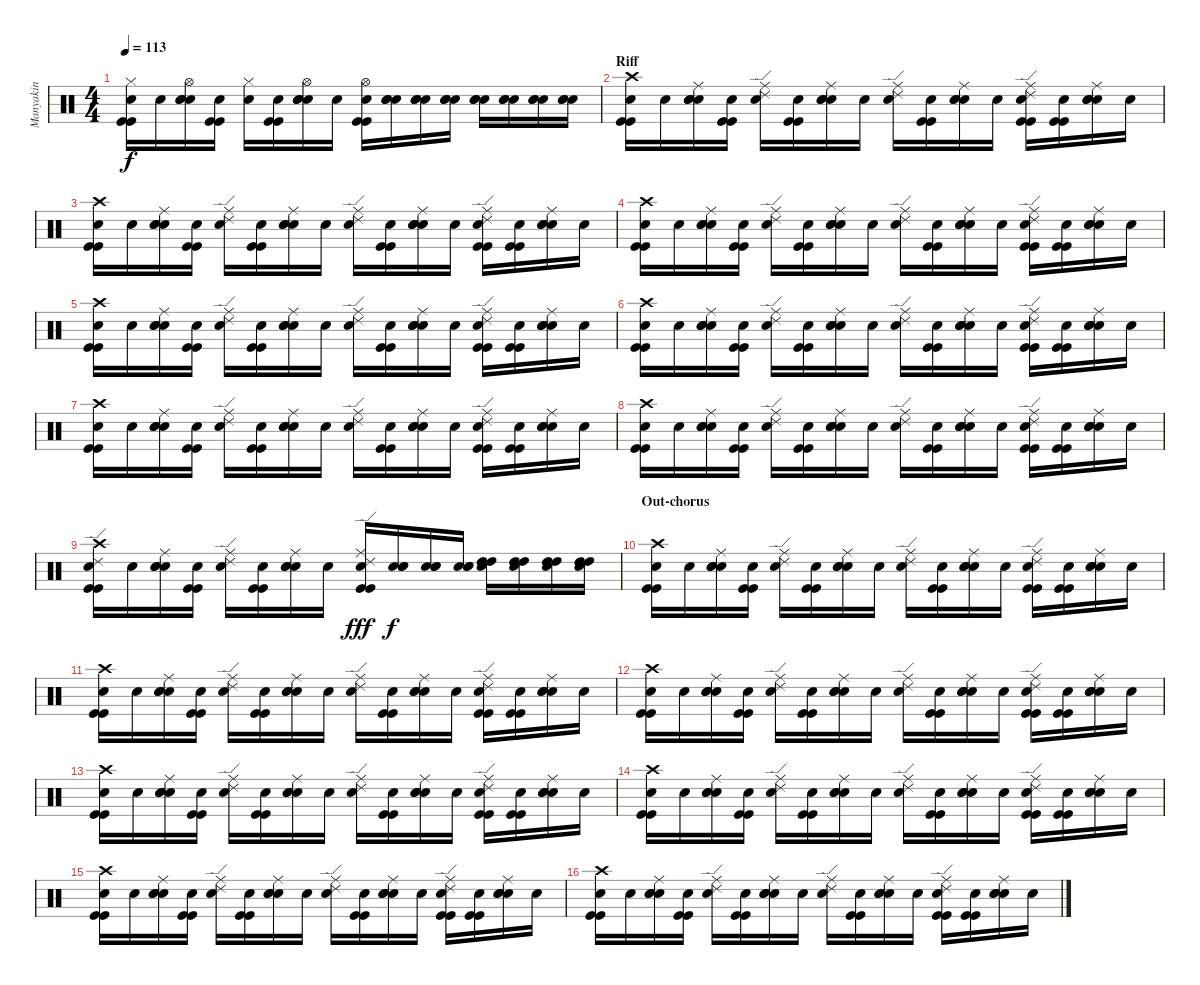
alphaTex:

\track ("Manyakin" "Manyakin") {instrument percussion}
\staff {score}
\articulation defaults
\ts (4 4)
\tempo 113
\clef neutral
\ks c
("Hi-Hat (closed)" "Kick (hit)" "Kick (hit)" "Snare (hit)"{x}).16{dy f} "Snare (hit)"{x}.16 ("Hi-Hat (open)" "Electric Snare (hit)" "Electric Snare (hit)" "Snare (hit)"{x}).16 ("Kick (hit)" "Kick (hit)" "Snare (hit)"{x}).16 ("Hi-Hat (closed)" "Snare (hit)"{x}).16 ("Kick (hit)" "Kick (hit)" "Snare (hit)"{x}).16 ("Hi-Hat (open)" "Electric Snare (hit)" "Electric Snare (hit)" "Snare (hit)"{x}).16 "Snare (hit)"{x}.16 ("Hi-Hat (open)" "Kick (hit)" "Kick (hit)" "Snare (hit)"{x}).16 ("Electric Snare (hit)" "Electric Snare (hit)" "Snare (hit)"{x}).16 ("Electric Snare (hit)" "Electric Snare (hit)" "Snare (hit)"{x}).16 ("Electric Snare (hit)" "Electric Snare (hit)" "Snare (hit)"{x}).16 ("Electric Snare (hit)" "Electric Snare (hit)" "Snare (hit)"{x}).16 ("Electric Snare (hit)" "Electric Snare (hit)" "Snare (hit)"{x}).16 ("Electric Snare (hit)" "Electric Snare (hit)" "Snare (hit)"{x}).16 ("Electric Snare (hit)" "Electric Snare (hit)" "Snare (hit)"{x}).16 |
\section ("" "Riff")
("Crash high (hit)" "Kick (hit)" "Kick (hit)" "Snare (hit)"{x}).16 "Snare (hit)"{x}.16 ("Ride (middle)" "Electric Snare (hit)" "Electric Snare (hit)" "Snare (hit)"{x}).16 ("Kick (hit)" "Kick (hit)" "Snare (hit)"{x}).16 ("Ride (middle)" "Ride (edge) 2" "Snare (hit)"{x}).16 ("Kick (hit)" "Kick (hit)" "Snare (hit)"{x}).16 ("Ride (middle)" "Electric Snare (hit)" "Electric Snare (hit)" "Snare (hit)"{x}).16 "Snare (hit)"{x}.16 ("Ride (middle)" "Ride (edge) 2" "Snare (hit)"{x}).16 ("Kick (hit)" "Kick (hit)" "Snare (hit)"{x}).16 ("Ride (middle)" "Electric Snare (hit)" "Electric Snare (hit)" "Snare (hit)"{x}).16 "Snare (hit)"{x}.16 ("Ride (middle)" "Ride (edge) 2" "Kick (hit)" "Kick (hit)" "Snare (hit)"{x}).16 ("Kick (hit)" "Kick (hit)" "Snare (hit)"{x}).16 ("Ride (middle)" "Electric Snare (hit)" "Electric Snare (hit)" "Snare (hit)"{x}).16 "Snare (hit)"{x}.16 |
("Crash high (hit)" "Kick (hit)" "Kick (hit)" "Snare (hit)"{x}).16 "Snare (hit)"{x}.16 ("Ride (middle)" "Electric Snare (hit)" "Electric Snare (hit)" "Snare (hit)"{x}).16 ("Kick (hit)" "Kick (hit)" "Snare (hit)"{x}).16 ("Ride (middle)" "Ride (edge) 2" "Snare (hit)"{x}).16 ("Kick (hit)" "Kick (hit)" "Snare (hit)"{x}).16 ("Ride (middle)" "Electric Snare (hit)" "Electric Snare (hit)" "Snare (hit)"{x}).16 "Snare (hit)"{x}.16 ("Ride (middle)" "Ride (edge) 2" "Snare (hit)"{x}).16 ("Kick (hit)" "Kick (hit)" "Snare (hit)"{x}).16 ("Ride (middle)" "Electric Snare (hit)" "Electric Snare (hit)" "Snare (hit)"{x}).16 "Snare (hit)"{x}.16 ("Ride (middle)" "Ride (edge) 2" "Kick (hit)" "Kick (hit)" "Snare (hit)"{x}).16 ("Kick (hit)" "Kick (hit)" "Snare (hit)"{x}).16 ("Ride (middle)" "Electric Snare (hit)" "Electric Snare (hit)" "Snare (hit)"{x}).16 "Snare (hit)"{x}.16 |
("Crash high (hit)" "Kick (hit)" "Kick (hit)" "Snare (hit)"{x}).16 "Snare (hit)"{x}.16 ("Ride (middle)" "Electric Snare (hit)" "Electric Snare (hit)" "Snare (hit)"{x}).16 ("Kick (hit)" "Kick (hit)" "Snare (hit)"{x}).16 ("Ride (middle)" "Ride (edge) 2" "Snare (hit)"{x}).16 ("Kick (hit)" "Kick (hit)" "Snare (hit)"{x}).16 ("Ride (middle)" "Electric Snare (hit)" "Electric Snare (hit)" "Snare (hit)"{x}).16 "Snare (hit)"{x}.16 ("Ride (middle)" "Ride (edge) 2" "Snare (hit)"{x}).16 ("Kick (hit)" "Kick (hit)" "Snare (hit)"{x}).16 ("Ride (middle)" "Electric Snare (hit)" "Electric Snare (hit)" "Snare (hit)"{x}).16 "Snare (hit)"{x}.16 ("Ride (middle)" "Ride (edge) 2" "Kick (hit)" "Kick (hit)" "Snare (hit)"{x}).16 ("Kick (hit)" "Kick (hit)" "Snare (hit)"{x}).16 ("Ride (middle)" "Electric Snare (hit)" "Electric Snare (hit)" "Snare (hit)"{x}).16 "Snare (hit)"{x}.16 |
("Crash high (hit)" "Kick (hit)" "Kick (hit)" "Snare (hit)"{x}).16 "Snare (hit)"{x}.16 ("Ride (middle)" "Electric Snare (hit)" "Electric Snare (hit)" "Snare (hit)"{x}).16 ("Kick (hit)" "Kick (hit)" "Snare (hit)"{x}).16 ("Ride (middle)" "Ride (edge) 2" "Snare (hit)"{x}).16 ("Kick (hit)" "Kick (hit)" "Snare (hit)"{x}).16 ("Ride (middle)" "Electric Snare (hit)" "Electric Snare (hit)" "Snare (hit)"{x}).16 "Snare (hit)"{x}.16 ("Ride (middle)" "Ride (edge) 2" "Snare (hit)"{x}).16 ("Kick (hit)" "Kick (hit)" "Snare (hit)"{x}).16 ("Ride (middle)" "Electric Snare (hit)" "Electric Snare (hit)" "Snare (hit)"{x}).16 "Snare (hit)"{x}.16 ("Ride (middle)" "Ride (edge) 2" "Kick (hit)" "Kick (hit)" "Snare (hit)"{x}).16 ("Kick (hit)" "Kick (hit)" "Snare (hit)"{x}).16 ("Ride (middle)" "Electric Snare (hit)" "Electric Snare (hit)" "Snare (hit)"{x}).16 "Snare (hit)"{x}.16 |
("Crash high (hit)" "Kick (hit)" "Kick (hit)" "Snare (hit)"{x}).16 "Snare (hit)"{x}.16 ("Ride (middle)" "Electric Snare (hit)" "Electric Snare (hit)" "Snare (hit)"{x}).16 ("Kick (hit)" "Kick (hit)" "Snare (hit)"{x}).16 ("Ride (middle)" "Ride (edge) 2" "Snare (hit)"{x}).16 ("Kick (hit)" "Kick (hit)" "Snare (hit)"{x}).16 ("Ride (middle)" "Electric Snare (hit)" "Electric Snare (hit)" "Snare (hit)"{x}).16 "Snare (hit)"{x}.16 ("Ride (middle)" "Ride (edge) 2" "Snare (hit)"{x}).16 ("Kick (hit)" "Kick (hit)" "Snare (hit)"{x}).16 ("Ride (middle)" "Electric Snare (hit)" "Electric Snare (hit)" "Snare (hit)"{x}).16 "Snare (hit)"{x}.16 ("Ride (middle)" "Ride (edge) 2" "Kick (hit)" "Kick (hit)" "Snare (hit)"{x}).16 ("Kick (hit)" "Kick (hit)" "Snare (hit)"{x}).16 ("Ride (middle)" "Electric Snare (hit)" "Electric Snare (hit)" "Snare (hit)"{x}).16 "Snare (hit)"{x}.16 |
("Crash high (hit)" "Kick (hit)" "Kick (hit)" "Snare (hit)"{x}).16 "Snare (hit)"{x}.16 ("Ride (middle)" "Electric Snare (hit)" "Electric Snare (hit)" "Snare (hit)"{x}).16 ("Kick (hit)" "Kick (hit)" "Snare (hit)"{x}).16 ("Ride (middle)" "Ride (edge) 2" "Snare (hit)"{x}).16 ("Kick (hit)" "Kick (hit)" "Snare (hit)"{x}).16 ("Ride (middle)" "Electric Snare (hit)" "Electric Snare (hit)" "Snare (hit)"{x}).16 "Snare (hit)"{x}.16 ("Ride (middle)" "Ride (edge) 2" "Snare (hit)"{x}).16 ("Kick (hit)" "Kick (hit)" "Snare (hit)"{x}).16 ("Ride (middle)" "Electric Snare (hit)" "Electric Snare (hit)" "Snare (hit)"{x}).16 "Snare (hit)"{x}.16 ("Ride (middle)" "Ride (edge) 2" "Kick (hit)" "Kick (hit)" "Snare (hit)"{x}).16 ("Kick (hit)" "Kick (hit)" "Snare (hit)"{x}).16 ("Ride (middle)" "Electric Snare (hit)" "Electric Snare (hit)" "Snare (hit)"{x}).16 "Snare (hit)"{x}.16 |
("Crash high (hit)" "Kick (hit)" "Kick (hit)" "Snare (hit)"{x}).16 "Snare (hit)"{x}.16 ("Ride (middle)" "Electric Snare (hit)" "Electric Snare (hit)" "Snare (hit)"{x}).16 ("Kick (hit)" "Kick (hit)" "Snare (hit)"{x}).16 ("Ride (middle)" "Ride (edge) 2" "Snare (hit)"{x}).16 ("Kick (hit)" "Kick (hit)" "Snare (hit)"{x}).16 ("Ride (middle)" "Electric Snare (hit)" "Electric Snare (hit)" "Snare (hit)"{x}).16 "Snare (hit)"{x}.16 ("Ride (middle)" "Ride (edge) 2" "Snare (hit)"{x}).16 ("Kick (hit)" "Kick (hit)" "Snare (hit)"{x}).16 ("Ride (middle)" "Electric Snare (hit)" "Electric Snare (hit)" "Snare (hit)"{x}).16 "Snare (hit)"{x}.16 ("Ride (middle)" "Ride (edge) 2" "Kick (hit)" "Kick (hit)" "Snare (hit)"{x}).16 ("Kick (hit)" "Kick (hit)" "Snare (hit)"{x}).16 ("Ride (middle)" "Electric Snare (hit)" "Electric Snare (hit)" "Snare (hit)"{x}).16 "Snare (hit)"{x}.16 |
("Crash high (hit)" "Ride (edge) 2" "Kick (hit)" "Kick (hit)" "Snare (hit)"{x}).16 "Snare (hit)"{x}.16 ("Ride (middle)" "Electric Snare (hit)" "Electric Snare (hit)" "Snare (hit)"{x}).16 ("Kick (hit)" "Kick (hit)" "Snare (hit)"{x}).16 ("Ride (middle)" "Ride (edge) 2" "Snare (hit)"{x}).16 ("Kick (hit)" "Kick (hit)" "Snare (hit)"{x}).16 ("Ride (middle)" "Electric Snare (hit)" "Electric Snare (hit)" "Snare (hit)"{x}).16 "Snare (hit)"{x}.16 ("Ride (middle)" "Ride (edge) 2" "Kick (hit)" "Kick (hit)" "Snare (hit)"{x}).16{dy fff} ("Electric Snare (hit)" "Electric Snare (hit)" "Snare (hit)"{x}).16{dy f} ("Electric Snare (hit)" "Electric Snare (hit)" "Snare (hit)"{x}).16 ("Electric Snare (hit)" "Electric Snare (hit)" "Snare (hit)"{x}).16 ("High Tom (hit)" "High Tom (hit)" "Snare (hit)"{x}).16 ("High Tom (hit)" "High Tom (hit)" "Snare (hit)"{x}).16 ("High Tom (hit)" "High Tom (hit)" "Snare (hit)"{x}).16 ("High Tom (hit)" "High Tom (hit)" "Snare (hit)"{x}).16 |
\section ("" "Out-chorus")
("Crash high (hit)" "Kick (hit)" "Kick (hit)" "Snare (hit)"{x}).16 "Snare (hit)"{x}.16 ("Ride (middle)" "Electric Snare (hit)" "Electric Snare (hit)" "Snare (hit)"{x}).16 ("Kick (hit)" "Kick (hit)" "Snare (hit)"{x}).16 ("Ride (middle)" "Ride (edge) 2" "Snare (hit)"{x}).16 ("Kick (hit)" "Kick (hit)" "Snare (hit)"{x}).16 ("Ride (middle)" "Electric Snare (hit)" "Electric Snare (hit)" "Snare (hit)"{x}).16 "Snare (hit)"{x}.16 ("Ride (middle)" "Ride (edge) 2" "Snare (hit)"{x}).16 ("Kick (hit)" "Kick (hit)" "Snare (hit)"{x}).16 ("Ride (middle)" "Electric Snare (hit)" "Electric Snare (hit)" "Snare (hit)"{x}).16 "Snare (hit)"{x}.16 ("Ride (middle)" "Ride (edge) 2" "Kick (hit)" "Kick (hit)" "Snare (hit)"{x}).16 ("Kick (hit)" "Kick (hit)" "Snare (hit)"{x}).16 ("Ride (middle)" "Electric Snare (hit)" "Electric Snare (hit)" "Snare (hit)"{x}).16 "Snare (hit)"{x}.16 |
("Crash high (hit)" "Kick (hit)" "Kick (hit)" "Snare (hit)"{x}).16 "Snare (hit)"{x}.16 ("Ride (middle)" "Electric Snare (hit)" "Electric Snare (hit)" "Snare (hit)"{x}).16 ("Kick (hit)" "Kick (hit)" "Snare (hit)"{x}).16 ("Ride (middle)" "Ride (edge) 2" "Snare (hit)"{x}).16 ("Kick (hit)" "Kick (hit)" "Snare (hit)"{x}).16 ("Ride (middle)" "Electric Snare (hit)" "Electric Snare (hit)" "Snare (hit)"{x}).16 "Snare (hit)"{x}.16 ("Ride (middle)" "Ride (edge) 2" "Snare (hit)"{x}).16 ("Kick (hit)" "Kick (hit)" "Snare (hit)"{x}).16 ("Ride (middle)" "Electric Snare (hit)" "Electric Snare (hit)" "Snare (hit)"{x}).16 "Snare (hit)"{x}.16 ("Ride (middle)" "Ride (edge) 2" "Kick (hit)" "Kick (hit)" "Snare (hit)"{x}).16 ("Kick (hit)" "Kick (hit)" "Snare (hit)"{x}).16 ("Ride (middle)" "Electric Snare (hit)" "Electric Snare (hit)" "Snare (hit)"{x}).16 "Snare (hit)"{x}.16 |
("Crash high (hit)" "Kick (hit)" "Kick (hit)" "Snare (hit)"{x}).16 "Snare (hit)"{x}.16 ("Ride (middle)" "Electric Snare (hit)" "Electric Snare (hit)" "Snare (hit)"{x}).16 ("Kick (hit)" "Kick (hit)" "Snare (hit)"{x}).16 ("Ride (middle)" "Ride (edge) 2" "Snare (hit)"{x}).16 ("Kick (hit)" "Kick (hit)" "Snare (hit)"{x}).16 ("Ride (middle)" "Electric Snare (hit)" "Electric Snare (hit)" "Snare (hit)"{x}).16 "Snare (hit)"{x}.16 ("Ride (middle)" "Ride (edge) 2" "Snare (hit)"{x}).16 ("Kick (hit)" "Kick (hit)" "Snare (hit)"{x}).16 ("Ride (middle)" "Electric Snare (hit)" "Electric Snare (hit)" "Snare (hit)"{x}).16 "Snare (hit)"{x}.16 ("Ride (middle)" "Ride (edge) 2" "Kick (hit)" "Kick (hit)" "Snare (hit)"{x}).16 ("Kick (hit)" "Kick (hit)" "Snare (hit)"{x}).16 ("Ride (middle)" "Electric Snare (hit)" "Electric Snare (hit)" "Snare (hit)"{x}).16 "Snare (hit)"{x}.16 |
("Crash high (hit)" "Kick (hit)" "Kick (hit)" "Snare (hit)"{x}).16 "Snare (hit)"{x}.16 ("Ride (middle)" "Electric Snare (hit)" "Electric Snare (hit)" "Snare (hit)"{x}).16 ("Kick (hit)" "Kick (hit)" "Snare (hit)"{x}).16 ("Ride (middle)" "Ride (edge) 2" "Snare (hit)"{x}).16 ("Kick (hit)" "Kick (hit)" "Snare (hit)"{x}).16 ("Ride (middle)" "Electric Snare (hit)" "Electric Snare (hit)" "Snare (hit)"{x}).16 "Snare (hit)"{x}.16 ("Ride (middle)" "Ride (edge) 2" "Snare (hit)"{x}).16 ("Kick (hit)" "Kick (hit)" "Snare (hit)"{x}).16 ("Ride (middle)" "Electric Snare (hit)" "Electric Snare (hit)" "Snare (hit)"{x}).16 "Snare (hit)"{x}.16 ("Ride (middle)" "Ride (edge) 2" "Kick (hit)" "Kick (hit)" "Snare (hit)"{x}).16 ("Kick (hit)" "Kick (hit)" "Snare (hit)"{x}).16 ("Ride (middle)" "Electric Snare (hit)" "Electric Snare (hit)" "Snare (hit)"{x}).16 "Snare (hit)"{x}.16 |
("Crash high (hit)" "Kick (hit)" "Kick (hit)" "Snare (hit)"{x}).16 "Snare (hit)"{x}.16 ("Ride (middle)" "Electric Snare (hit)" "Electric Snare (hit)" "Snare (hit)"{x}).16 ("Kick (hit)" "Kick (hit)" "Snare (hit)"{x}).16 ("Ride (middle)" "Ride (edge) 2" "Snare (hit)"{x}).16 ("Kick (hit)" "Kick (hit)" "Snare (hit)"{x}).16 ("Ride (middle)" "Electric Snare (hit)" "Electric Snare (hit)" "Snare (hit)"{x}).16 "Snare (hit)"{x}.16 ("Ride (middle)" "Ride (edge) 2" "Snare (hit)"{x}).16 ("Kick (hit)" "Kick (hit)" "Snare (hit)"{x}).16 ("Ride (middle)" "Electric Snare (hit)" "Electric Snare (hit)" "Snare (hit)"{x}).16 "Snare (hit)"{x}.16 ("Ride (middle)" "Ride (edge) 2" "Kick (hit)" "Kick (hit)" "Snare (hit)"{x}).16 ("Kick (hit)" "Kick (hit)" "Snare (hit)"{x}).16 ("Ride (middle)" "Electric Snare (hit)" "Electric Snare (hit)" "Snare (hit)"{x}).16 "Snare (hit)"{x}.16 |
("Crash high (hit)" "Kick (hit)" "Kick (hit)" "Snare (hit)"{x}).16 "Snare (hit)"{x}.16 ("Ride (middle)" "Electric Snare (hit)" "Electric Snare (hit)" "Snare (hit)"{x}).16 ("Kick (hit)" "Kick (hit)" "Snare (hit)"{x}).16 ("Ride (middle)" "Ride (edge) 2" "Snare (hit)"{x}).16 ("Kick (hit)" "Kick (hit)" "Snare (hit)"{x}).16 ("Ride (middle)" "Electric Snare (hit)" "Electric Snare (hit)" "Snare (hit)"{x}).16 "Snare (hit)"{x}.16 ("Ride (middle)" "Ride (edge) 2" "Snare (hit)"{x}).16 ("Kick (hit)" "Kick (hit)" "Snare (hit)"{x}).16 ("Ride (middle)" "Electric Snare (hit)" "Electric Snare (hit)" "Snare (hit)"{x}).16 "Snare (hit)"{x}.16 ("Ride (middle)" "Ride (edge) 2" "Kick (hit)" "Kick (hit)" "Snare (hit)"{x}).16 ("Kick (hit)" "Kick (hit)" "Snare (hit)"{x}).16 ("Ride (middle)" "Electric Snare (hit)" "Electric Snare (hit)" "Snare (hit)"{x}).16 "Snare (hit)"{x}.16 |
("Crash high (hit)" "Kick (hit)" "Kick (hit)" "Snare (hit)"{x}).16 "Snare (hit)"{x}.16 ("Ride (middle)" "Electric Snare (hit)" "Electric Snare (hit)" "Snare (hit)"{x}).16 ("Kick (hit)" "Kick (hit)" "Snare (hit)"{x}).16 ("Ride (middle)" "Ride (edge) 2" "Snare (hit)"{x}).16 ("Kick (hit)" "Kick (hit)" "Snare (hit)"{x}).16 ("Ride (middle)" "Electric Snare (hit)" "Electric Snare (hit)" "Snare (hit)"{x}).16 "Snare (hit)"{x}.16 ("Ride (middle)" "Ride (edge) 2" "Snare (hit)"{x}).16 ("Kick (hit)" "Kick (hit)" "Snare (hit)"{x}).16 ("Ride (middle)" "Electric Snare (hit)" "Electric Snare (hit)" "Snare (hit)"{x}).16 "Snare (hit)"{x}.16 ("Ride (middle)" "Ride (edge) 2" "Kick (hit)" "Kick (hit)" "Snare (hit)"{x}).16 ("Kick (hit)" "Kick (hit)" "Snare (hit)"{x}).16 ("Ride (middle)" "Electric Snare (hit)" "Electric Snare (hit)" "Snare (hit)"{x}).16 "Snare (hit)"{x}.16
